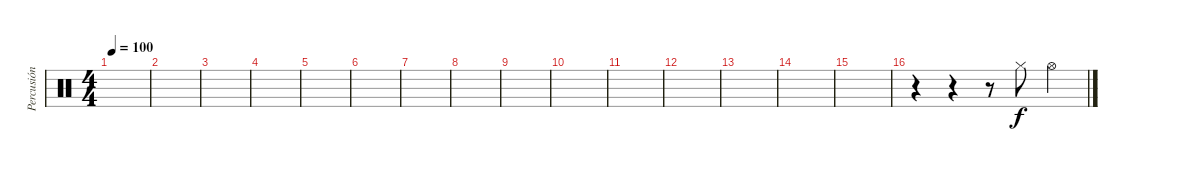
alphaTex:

\track ("Percusión" "Percusión") {instrument percussion}
\staff {score}
\articulation defaults
\ts (4 4)
\tempo 100
\clef neutral
\ks c
|
|
|
|
|
|
|
|
|
|
|
|
|
|
|
r.4 r.4 r.8 "Hi-Hat (closed)".8 "Hi-Hat (open)".4
